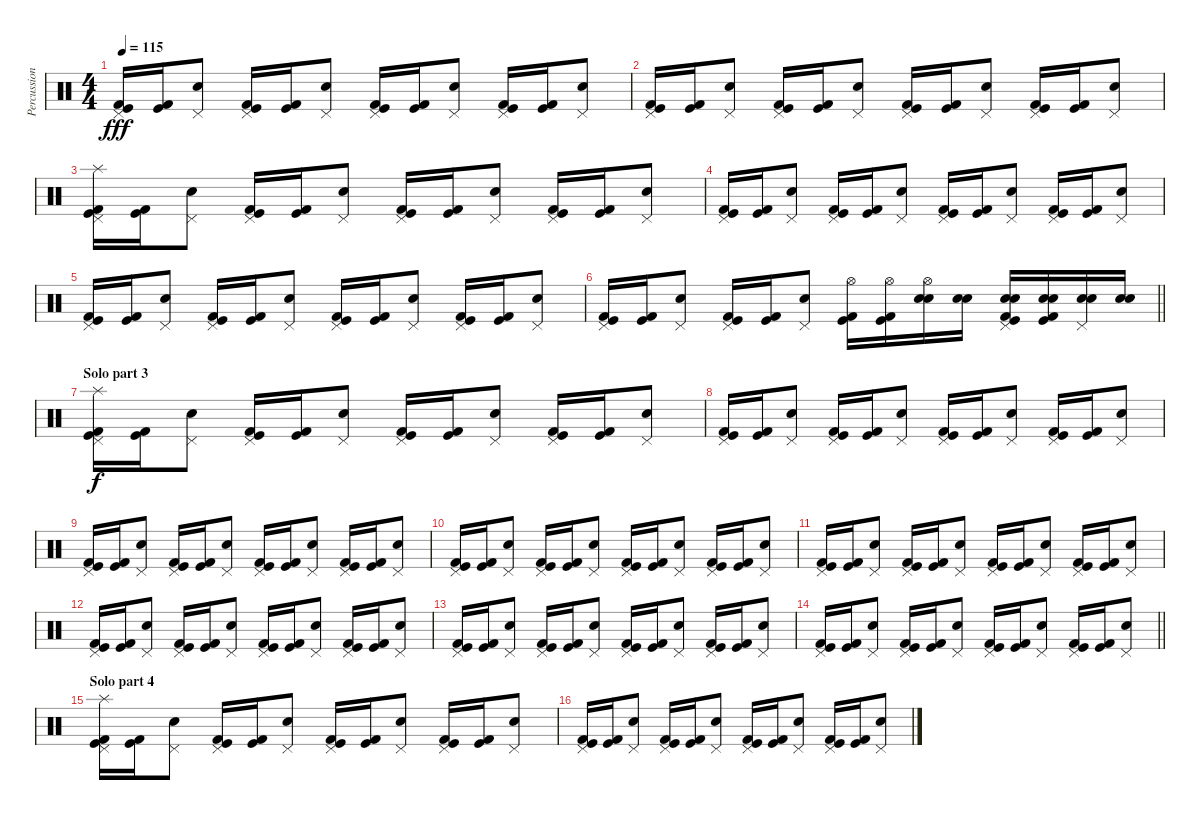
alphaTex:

\track ("Percussion" "Percussion") {instrument percussion}
\staff {score}
\articulation defaults
\ts (4 4)
\tempo 115
\clef neutral
\ks c
("Pedal Hi-Hat (hit)" "Kick (hit)" "Kick (hit) 2").16{dy fff} ("Kick (hit)" "Kick (hit) 2").16 ("Snare (hit) 2" "Pedal Hi-Hat (hit)").8 ("Pedal Hi-Hat (hit)" "Kick (hit)" "Kick (hit) 2").16 ("Kick (hit)" "Kick (hit) 2").16 ("Snare (hit) 2" "Pedal Hi-Hat (hit)").8 ("Pedal Hi-Hat (hit)" "Kick (hit)" "Kick (hit) 2").16 ("Kick (hit)" "Kick (hit) 2").16 ("Snare (hit) 2" "Pedal Hi-Hat (hit)").8 ("Pedal Hi-Hat (hit)" "Kick (hit)" "Kick (hit) 2").16 ("Kick (hit)" "Kick (hit) 2").16 ("Snare (hit) 2" "Pedal Hi-Hat (hit)").8 |
("Pedal Hi-Hat (hit)" "Kick (hit)" "Kick (hit) 2").16 ("Kick (hit)" "Kick (hit) 2").16 ("Snare (hit) 2" "Pedal Hi-Hat (hit)").8 ("Pedal Hi-Hat (hit)" "Kick (hit)" "Kick (hit) 2").16 ("Kick (hit)" "Kick (hit) 2").16 ("Snare (hit) 2" "Pedal Hi-Hat (hit)").8 ("Pedal Hi-Hat (hit)" "Kick (hit)" "Kick (hit) 2").16 ("Kick (hit)" "Kick (hit) 2").16 ("Snare (hit) 2" "Pedal Hi-Hat (hit)").8 ("Pedal Hi-Hat (hit)" "Kick (hit)" "Kick (hit) 2").16 ("Kick (hit)" "Kick (hit) 2").16 ("Snare (hit) 2" "Pedal Hi-Hat (hit)").8 |
("Splash (hit)" "Pedal Hi-Hat (hit)" "Kick (hit)" "Kick (hit) 2").16 ("Kick (hit)" "Kick (hit) 2").16 ("Snare (hit) 2" "Pedal Hi-Hat (hit)").8 ("Pedal Hi-Hat (hit)" "Kick (hit)" "Kick (hit) 2").16 ("Kick (hit)" "Kick (hit) 2").16 ("Snare (hit) 2" "Pedal Hi-Hat (hit)").8 ("Pedal Hi-Hat (hit)" "Kick (hit)" "Kick (hit) 2").16 ("Kick (hit)" "Kick (hit) 2").16 ("Snare (hit) 2" "Pedal Hi-Hat (hit)").8 ("Pedal Hi-Hat (hit)" "Kick (hit)" "Kick (hit) 2").16 ("Kick (hit)" "Kick (hit) 2").16 ("Snare (hit) 2" "Pedal Hi-Hat (hit)").8 |
("Pedal Hi-Hat (hit)" "Kick (hit)" "Kick (hit) 2").16 ("Kick (hit)" "Kick (hit) 2").16 ("Snare (hit) 2" "Pedal Hi-Hat (hit)").8 ("Pedal Hi-Hat (hit)" "Kick (hit)" "Kick (hit) 2").16 ("Kick (hit)" "Kick (hit) 2").16 ("Snare (hit) 2" "Pedal Hi-Hat (hit)").8 ("Pedal Hi-Hat (hit)" "Kick (hit)" "Kick (hit) 2").16 ("Kick (hit)" "Kick (hit) 2").16 ("Snare (hit) 2" "Pedal Hi-Hat (hit)").8 ("Pedal Hi-Hat (hit)" "Kick (hit)" "Kick (hit) 2").16 ("Kick (hit)" "Kick (hit) 2").16 ("Snare (hit) 2" "Pedal Hi-Hat (hit)").8 |
("Pedal Hi-Hat (hit)" "Kick (hit)" "Kick (hit) 2").16 ("Kick (hit)" "Kick (hit) 2").16 ("Snare (hit) 2" "Pedal Hi-Hat (hit)").8 ("Pedal Hi-Hat (hit)" "Kick (hit)" "Kick (hit) 2").16 ("Kick (hit)" "Kick (hit) 2").16 ("Snare (hit) 2" "Pedal Hi-Hat (hit)").8 ("Pedal Hi-Hat (hit)" "Kick (hit)" "Kick (hit) 2").16 ("Kick (hit)" "Kick (hit) 2").16 ("Snare (hit) 2" "Pedal Hi-Hat (hit)").8 ("Pedal Hi-Hat (hit)" "Kick (hit)" "Kick (hit) 2").16 ("Kick (hit)" "Kick (hit) 2").16 ("Snare (hit) 2" "Pedal Hi-Hat (hit)").8 |
\barLineRight lightlight
("Pedal Hi-Hat (hit)" "Kick (hit)" "Kick (hit) 2").16 ("Kick (hit)" "Kick (hit) 2").16 ("Snare (hit) 2" "Pedal Hi-Hat (hit)").8 ("Pedal Hi-Hat (hit)" "Kick (hit)" "Kick (hit) 2").16 ("Kick (hit)" "Kick (hit) 2").16 ("Snare (hit) 2" "Pedal Hi-Hat (hit)").8 ("Hi-Hat (open)" "Kick (hit)" "Kick (hit) 2").16 ("Hi-Hat (open)" "Kick (hit)" "Kick (hit) 2").16 ("Snare (hit) 2" "Electric Snare (hit)" "Hi-Hat (open)").16 ("Snare (hit) 2" "Electric Snare (hit)").16 ("Snare (hit) 2" "Electric Snare (hit)" "Pedal Hi-Hat (hit)" "Kick (hit)" "Kick (hit) 2").16 ("Snare (hit) 2" "Electric Snare (hit)" "Kick (hit)" "Kick (hit) 2").16 ("Snare (hit) 2" "Electric Snare (hit)" "Pedal Hi-Hat (hit)").16 ("Snare (hit) 2" "Electric Snare (hit)").16 |
\section ("" "Solo part 3")
("Splash (hit)" "Pedal Hi-Hat (hit)" "Kick (hit)" "Kick (hit) 2").16{dy f} ("Kick (hit)" "Kick (hit) 2").16 ("Snare (hit) 2" "Pedal Hi-Hat (hit)").8 ("Pedal Hi-Hat (hit)" "Kick (hit)" "Kick (hit) 2").16 ("Kick (hit)" "Kick (hit) 2").16 ("Snare (hit) 2" "Pedal Hi-Hat (hit)").8 ("Pedal Hi-Hat (hit)" "Kick (hit)" "Kick (hit) 2").16 ("Kick (hit)" "Kick (hit) 2").16 ("Snare (hit) 2" "Pedal Hi-Hat (hit)").8 ("Pedal Hi-Hat (hit)" "Kick (hit)" "Kick (hit) 2").16 ("Kick (hit)" "Kick (hit) 2").16 ("Snare (hit) 2" "Pedal Hi-Hat (hit)").8 |
("Pedal Hi-Hat (hit)" "Kick (hit)" "Kick (hit) 2").16 ("Kick (hit)" "Kick (hit) 2").16 ("Snare (hit) 2" "Pedal Hi-Hat (hit)").8 ("Pedal Hi-Hat (hit)" "Kick (hit)" "Kick (hit) 2").16 ("Kick (hit)" "Kick (hit) 2").16 ("Snare (hit) 2" "Pedal Hi-Hat (hit)").8 ("Pedal Hi-Hat (hit)" "Kick (hit)" "Kick (hit) 2").16 ("Kick (hit)" "Kick (hit) 2").16 ("Snare (hit) 2" "Pedal Hi-Hat (hit)").8 ("Pedal Hi-Hat (hit)" "Kick (hit)" "Kick (hit) 2").16 ("Kick (hit)" "Kick (hit) 2").16 ("Snare (hit) 2" "Pedal Hi-Hat (hit)").8 |
("Pedal Hi-Hat (hit)" "Kick (hit)" "Kick (hit) 2").16 ("Kick (hit)" "Kick (hit) 2").16 ("Snare (hit) 2" "Pedal Hi-Hat (hit)").8 ("Pedal Hi-Hat (hit)" "Kick (hit)" "Kick (hit) 2").16 ("Kick (hit)" "Kick (hit) 2").16 ("Snare (hit) 2" "Pedal Hi-Hat (hit)").8 ("Pedal Hi-Hat (hit)" "Kick (hit)" "Kick (hit) 2").16 ("Kick (hit)" "Kick (hit) 2").16 ("Snare (hit) 2" "Pedal Hi-Hat (hit)").8 ("Pedal Hi-Hat (hit)" "Kick (hit)" "Kick (hit) 2").16 ("Kick (hit)" "Kick (hit) 2").16 ("Snare (hit) 2" "Pedal Hi-Hat (hit)").8 |
("Pedal Hi-Hat (hit)" "Kick (hit)" "Kick (hit) 2").16 ("Kick (hit)" "Kick (hit) 2").16 ("Snare (hit) 2" "Pedal Hi-Hat (hit)").8 ("Pedal Hi-Hat (hit)" "Kick (hit)" "Kick (hit) 2").16 ("Kick (hit)" "Kick (hit) 2").16 ("Snare (hit) 2" "Pedal Hi-Hat (hit)").8 ("Pedal Hi-Hat (hit)" "Kick (hit)" "Kick (hit) 2").16 ("Kick (hit)" "Kick (hit) 2").16 ("Snare (hit) 2" "Pedal Hi-Hat (hit)").8 ("Pedal Hi-Hat (hit)" "Kick (hit)" "Kick (hit) 2").16 ("Kick (hit)" "Kick (hit) 2").16 ("Snare (hit) 2" "Pedal Hi-Hat (hit)").8 |
("Pedal Hi-Hat (hit)" "Kick (hit)" "Kick (hit) 2").16 ("Kick (hit)" "Kick (hit) 2").16 ("Snare (hit) 2" "Pedal Hi-Hat (hit)").8 ("Pedal Hi-Hat (hit)" "Kick (hit)" "Kick (hit) 2").16 ("Kick (hit)" "Kick (hit) 2").16 ("Snare (hit) 2" "Pedal Hi-Hat (hit)").8 ("Pedal Hi-Hat (hit)" "Kick (hit)" "Kick (hit) 2").16 ("Kick (hit)" "Kick (hit) 2").16 ("Snare (hit) 2" "Pedal Hi-Hat (hit)").8 ("Pedal Hi-Hat (hit)" "Kick (hit)" "Kick (hit) 2").16 ("Kick (hit)" "Kick (hit) 2").16 ("Snare (hit) 2" "Pedal Hi-Hat (hit)").8 |
("Pedal Hi-Hat (hit)" "Kick (hit)" "Kick (hit) 2").16 ("Kick (hit)" "Kick (hit) 2").16 ("Snare (hit) 2" "Pedal Hi-Hat (hit)").8 ("Pedal Hi-Hat (hit)" "Kick (hit)" "Kick (hit) 2").16 ("Kick (hit)" "Kick (hit) 2").16 ("Snare (hit) 2" "Pedal Hi-Hat (hit)").8 ("Pedal Hi-Hat (hit)" "Kick (hit)" "Kick (hit) 2").16 ("Kick (hit)" "Kick (hit) 2").16 ("Snare (hit) 2" "Pedal Hi-Hat (hit)").8 ("Pedal Hi-Hat (hit)" "Kick (hit)" "Kick (hit) 2").16 ("Kick (hit)" "Kick (hit) 2").16 ("Snare (hit) 2" "Pedal Hi-Hat (hit)").8 |
("Pedal Hi-Hat (hit)" "Kick (hit)" "Kick (hit) 2").16 ("Kick (hit)" "Kick (hit) 2").16 ("Snare (hit) 2" "Pedal Hi-Hat (hit)").8 ("Pedal Hi-Hat (hit)" "Kick (hit)" "Kick (hit) 2").16 ("Kick (hit)" "Kick (hit) 2").16 ("Snare (hit) 2" "Pedal Hi-Hat (hit)").8 ("Pedal Hi-Hat (hit)" "Kick (hit)" "Kick (hit) 2").16 ("Kick (hit)" "Kick (hit) 2").16 ("Snare (hit) 2" "Pedal Hi-Hat (hit)").8 ("Pedal Hi-Hat (hit)" "Kick (hit)" "Kick (hit) 2").16 ("Kick (hit)" "Kick (hit) 2").16 ("Snare (hit) 2" "Pedal Hi-Hat (hit)").8 |
\barLineRight lightlight
("Pedal Hi-Hat (hit)" "Kick (hit)" "Kick (hit) 2").16 ("Kick (hit)" "Kick (hit) 2").16 ("Snare (hit) 2" "Pedal Hi-Hat (hit)").8 ("Pedal Hi-Hat (hit)" "Kick (hit)" "Kick (hit) 2").16 ("Kick (hit)" "Kick (hit) 2").16 ("Snare (hit) 2" "Pedal Hi-Hat (hit)").8 ("Pedal Hi-Hat (hit)" "Kick (hit)" "Kick (hit) 2").16 ("Kick (hit)" "Kick (hit) 2").16 ("Snare (hit) 2" "Pedal Hi-Hat (hit)").8 ("Pedal Hi-Hat (hit)" "Kick (hit)" "Kick (hit) 2").16 ("Kick (hit)" "Kick (hit) 2").16 ("Snare (hit) 2" "Pedal Hi-Hat (hit)").8 |
\section ("" "Solo part 4")
("Splash (hit)" "Pedal Hi-Hat (hit)" "Kick (hit)" "Kick (hit) 2").16 ("Kick (hit)" "Kick (hit) 2").16 ("Snare (hit) 2" "Pedal Hi-Hat (hit)").8 ("Pedal Hi-Hat (hit)" "Kick (hit)" "Kick (hit) 2").16 ("Kick (hit)" "Kick (hit) 2").16 ("Snare (hit) 2" "Pedal Hi-Hat (hit)").8 ("Pedal Hi-Hat (hit)" "Kick (hit)" "Kick (hit) 2").16 ("Kick (hit)" "Kick (hit) 2").16 ("Snare (hit) 2" "Pedal Hi-Hat (hit)").8 ("Pedal Hi-Hat (hit)" "Kick (hit)" "Kick (hit) 2").16 ("Kick (hit)" "Kick (hit) 2").16 ("Snare (hit) 2" "Pedal Hi-Hat (hit)").8 |
("Pedal Hi-Hat (hit)" "Kick (hit)" "Kick (hit) 2").16 ("Kick (hit)" "Kick (hit) 2").16 ("Snare (hit) 2" "Pedal Hi-Hat (hit)").8 ("Pedal Hi-Hat (hit)" "Kick (hit)" "Kick (hit) 2").16 ("Kick (hit)" "Kick (hit) 2").16 ("Snare (hit) 2" "Pedal Hi-Hat (hit)").8 ("Pedal Hi-Hat (hit)" "Kick (hit)" "Kick (hit) 2").16 ("Kick (hit)" "Kick (hit) 2").16 ("Snare (hit) 2" "Pedal Hi-Hat (hit)").8 ("Pedal Hi-Hat (hit)" "Kick (hit)" "Kick (hit) 2").16 ("Kick (hit)" "Kick (hit) 2").16 ("Snare (hit) 2" "Pedal Hi-Hat (hit)").8
